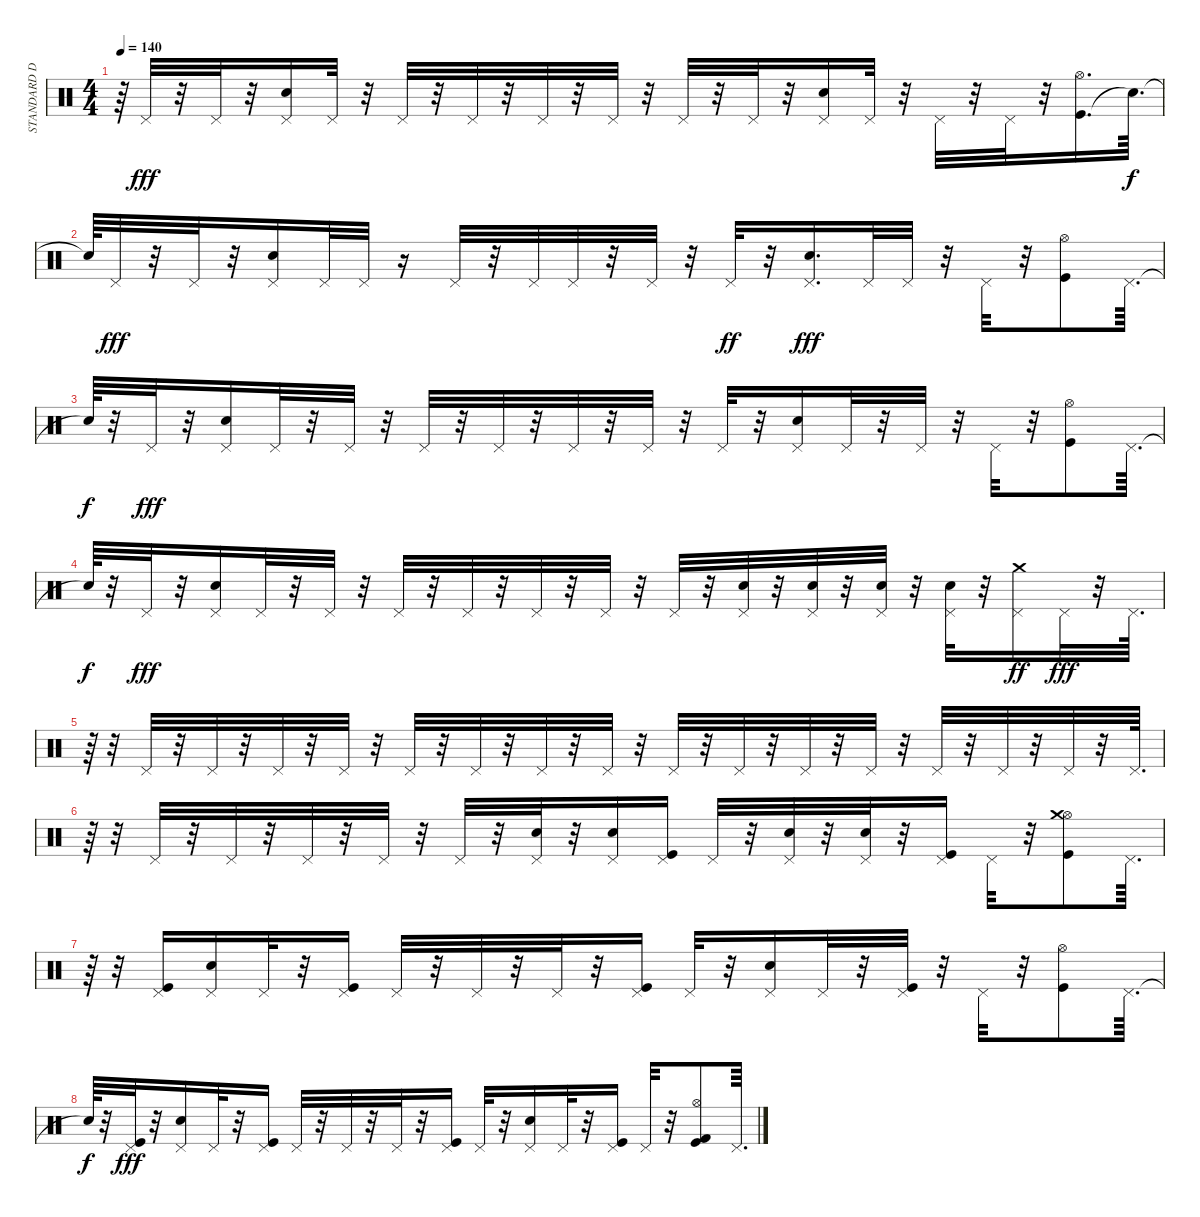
\track ("STANDARD DRUMS" "STANDARD D") {instrument percussion}
\staff {score}
\articulation defaults
\ts (4 4)
\tempo 140
\clef neutral
\ks c
r.64{dy fff} "Pedal Hi-Hat (hit)".32 r.32 "Pedal Hi-Hat (hit)".32 r.32 ("Snare (hit) 2" "Pedal Hi-Hat (hit)").16 "Pedal Hi-Hat (hit)".32 r.32 "Pedal Hi-Hat (hit)".32 r.32 "Pedal Hi-Hat (hit)".32 r.32 "Pedal Hi-Hat (hit)".32 r.32 "Pedal Hi-Hat (hit)".32 r.32 "Pedal Hi-Hat (hit)".32 r.32 "Pedal Hi-Hat (hit)".32 r.32 ("Snare (hit) 2" "Pedal Hi-Hat (hit)").16 "Pedal Hi-Hat (hit)".32 r.32 "Pedal Hi-Hat (hit)".32 r.32 "Pedal Hi-Hat (hit)".32 r.32 ("Kick (hit)" "Hi-Hat (open)").16{d} "Snare (hit)"{t}.64{d dy f} |
"Snare (hit)"{t}.64 "Pedal Hi-Hat (hit)".32{dy fff} r.32 "Pedal Hi-Hat (hit)".32 r.32 ("Snare (hit) 2" "Pedal Hi-Hat (hit)").16 "Pedal Hi-Hat (hit)".32 "Pedal Hi-Hat (hit)".32 r.16 "Pedal Hi-Hat (hit)".32 r.32 "Pedal Hi-Hat (hit)".32 "Pedal Hi-Hat (hit)".32 r.32 "Pedal Hi-Hat (hit)".32 r.32 "Pedal Hi-Hat (hit)".32{dy ff} r.32 ("Snare (hit) 2" "Pedal Hi-Hat (hit)").16{d dy fff} "Pedal Hi-Hat (hit)".32 "Pedal Hi-Hat (hit)".32 r.32 "Pedal Hi-Hat (hit)".32 r.32 ("Kick (hit)" "Hi-Hat (open)").8 "Pedal Hi-Hat (hit)".64{d} |
"Snare (hit)"{t}.64{dy f} r.32 "Pedal Hi-Hat (hit)".32{dy fff} r.32 ("Snare (hit) 2" "Pedal Hi-Hat (hit)").16 "Pedal Hi-Hat (hit)".32 r.32 "Pedal Hi-Hat (hit)".32 r.32 "Pedal Hi-Hat (hit)".32 r.32 "Pedal Hi-Hat (hit)".32 r.32 "Pedal Hi-Hat (hit)".32 r.32 "Pedal Hi-Hat (hit)".32 r.32 "Pedal Hi-Hat (hit)".32 r.32 ("Snare (hit) 2" "Pedal Hi-Hat (hit)").16 "Pedal Hi-Hat (hit)".32 r.32 "Pedal Hi-Hat (hit)".32 r.32 "Pedal Hi-Hat (hit)".32 r.32 ("Kick (hit)" "Hi-Hat (open)").8 "Pedal Hi-Hat (hit)".64{d} |
"Snare (hit)"{t}.64{dy f} r.32 "Pedal Hi-Hat (hit)".32{dy fff} r.32 ("Snare (hit) 2" "Pedal Hi-Hat (hit)").16 "Pedal Hi-Hat (hit)".32 r.32 "Pedal Hi-Hat (hit)".32 r.32 "Pedal Hi-Hat (hit)".32 r.32 "Pedal Hi-Hat (hit)".32 r.32 "Pedal Hi-Hat (hit)".32 r.32 "Pedal Hi-Hat (hit)".32 r.32 "Pedal Hi-Hat (hit)".32 r.32 ("Snare (hit) 2" "Pedal Hi-Hat (hit)").32 r.32 ("Snare (hit) 2" "Pedal Hi-Hat (hit)").32 r.32 ("Snare (hit) 2" "Pedal Hi-Hat (hit)").32 r.32 ("Snare (hit) 2" "Pedal Hi-Hat (hit)").32 r.32 ("Pedal Hi-Hat (hit)" "Crash medium (hit)").16{dy ff} "Pedal Hi-Hat (hit)".32{dy fff} r.32 "Pedal Hi-Hat (hit)".64{d} |
r.64 r.32 "Pedal Hi-Hat (hit)".32 r.32 "Pedal Hi-Hat (hit)".32 r.32 "Pedal Hi-Hat (hit)".32 r.32 "Pedal Hi-Hat (hit)".32 r.32 "Pedal Hi-Hat (hit)".32 r.32 "Pedal Hi-Hat (hit)".32 r.32 "Pedal Hi-Hat (hit)".32 r.32 "Pedal Hi-Hat (hit)".32 r.32 "Pedal Hi-Hat (hit)".32 r.32 "Pedal Hi-Hat (hit)".32 r.32 "Pedal Hi-Hat (hit)".32 r.32 "Pedal Hi-Hat (hit)".32 r.32 "Pedal Hi-Hat (hit)".32 r.32 "Pedal Hi-Hat (hit)".32 r.32 "Pedal Hi-Hat (hit)".32 r.32 "Pedal Hi-Hat (hit)".64{d} |
r.64 r.32 "Pedal Hi-Hat (hit)".32 r.32 "Pedal Hi-Hat (hit)".32 r.32 "Pedal Hi-Hat (hit)".32 r.32 "Pedal Hi-Hat (hit)".32 r.32 "Pedal Hi-Hat (hit)".32 r.32 ("Snare (hit) 2" "Pedal Hi-Hat (hit)").32 r.32 ("Snare (hit) 2" "Pedal Hi-Hat (hit)").16 ("Kick (hit)" "Pedal Hi-Hat (hit)").16 "Pedal Hi-Hat (hit)".32 r.32 ("Snare (hit) 2" "Pedal Hi-Hat (hit)").32 r.32 ("Snare (hit) 2" "Pedal Hi-Hat (hit)").32 r.32 ("Kick (hit)" "Pedal Hi-Hat (hit)").16 "Pedal Hi-Hat (hit)".32 r.32 ("Kick (hit)" "Hi-Hat (open)" "Crash medium (hit)").8 "Pedal Hi-Hat (hit)".64{d} |
r.64 r.32 ("Kick (hit)" "Pedal Hi-Hat (hit)").16 ("Snare (hit) 2" "Pedal Hi-Hat (hit)").16 "Pedal Hi-Hat (hit)".32 r.32 ("Kick (hit)" "Pedal Hi-Hat (hit)").16 "Pedal Hi-Hat (hit)".32 r.32 "Pedal Hi-Hat (hit)".32 r.32 "Pedal Hi-Hat (hit)".32 r.32 ("Kick (hit)" "Pedal Hi-Hat (hit)").16 "Pedal Hi-Hat (hit)".32 r.32 ("Snare (hit) 2" "Pedal Hi-Hat (hit)").16 "Pedal Hi-Hat (hit)".32 r.32 ("Kick (hit)" "Pedal Hi-Hat (hit)").32 r.32 "Pedal Hi-Hat (hit)".32 r.32 ("Kick (hit)" "Hi-Hat (open)").8 "Pedal Hi-Hat (hit)".64{d} |
"Snare (hit)"{t}.64{dy f} r.32 ("Kick (hit)" "Pedal Hi-Hat (hit)").32{dy fff} r.32 ("Snare (hit) 2" "Pedal Hi-Hat (hit)").16 "Pedal Hi-Hat (hit)".32 r.32 ("Kick (hit)" "Pedal Hi-Hat (hit)").16 "Pedal Hi-Hat (hit)".32 r.32 "Pedal Hi-Hat (hit)".32 r.32 "Pedal Hi-Hat (hit)".32 r.32 ("Kick (hit)" "Pedal Hi-Hat (hit)").16 "Pedal Hi-Hat (hit)".32 r.32 ("Snare (hit) 2" "Pedal Hi-Hat (hit)").16 "Pedal Hi-Hat (hit)".32 r.32 ("Kick (hit)" "Pedal Hi-Hat (hit)").16 "Pedal Hi-Hat (hit)".32 r.32 ("Kick (hit)" "Kick (hit) 2" "Hi-Hat (open)").8 "Pedal Hi-Hat (hit)".64{d}
